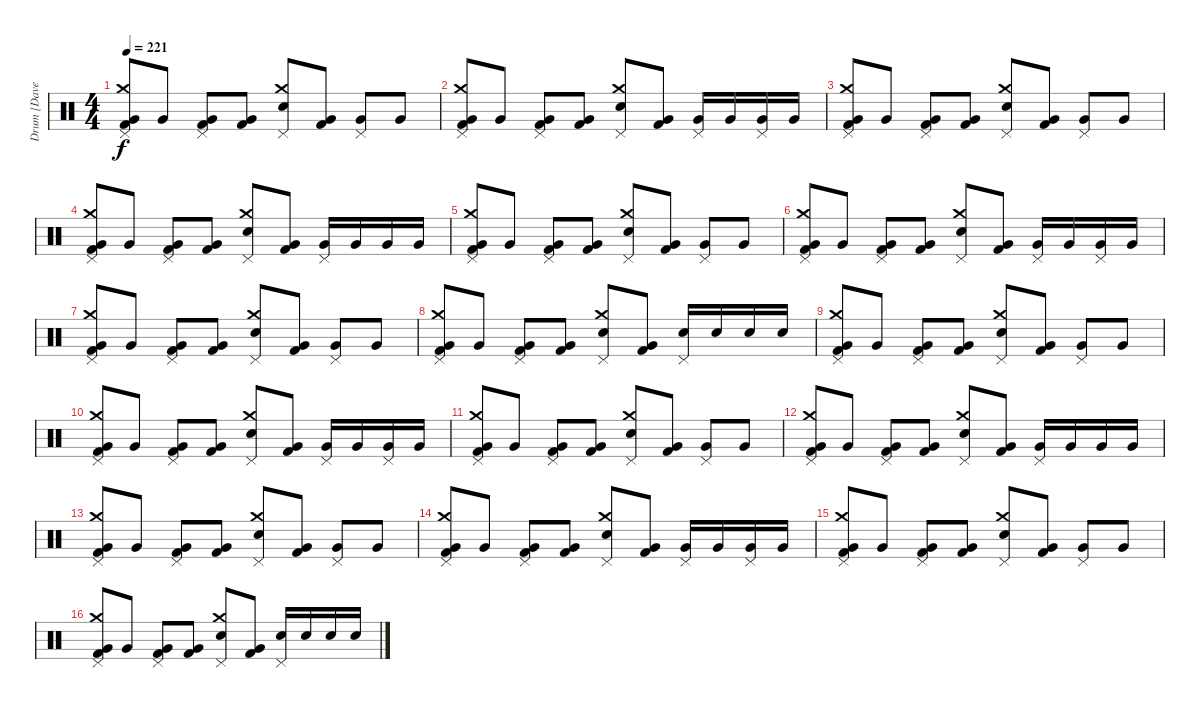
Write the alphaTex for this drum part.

\track ("Drum [Dave Grohl]" "Drum [Dave") {instrument percussion bank 255}
\staff {score}
\articulation defaults
\ts (4 4)
\tempo 221
\clef neutral
\ks c
("Pedal Hi-Hat (hit)" "Crash medium (hit)" "Very Low Tom (hit)" "Kick (hit) 2").8{dy f} "Very Low Tom (hit)".8 ("Pedal Hi-Hat (hit)" "Very Low Tom (hit)" "Kick (hit) 2").8 ("Very Low Tom (hit)" "Kick (hit) 2").8 ("Pedal Hi-Hat (hit)" "Crash medium (hit)" "Snare (hit) 2").8 ("Very Low Tom (hit)" "Kick (hit) 2").8 ("Pedal Hi-Hat (hit)" "Very Low Tom (hit)").8 "Very Low Tom (hit)".8 |
("Pedal Hi-Hat (hit)" "Crash medium (hit)" "Very Low Tom (hit)" "Kick (hit) 2").8 "Very Low Tom (hit)".8 ("Pedal Hi-Hat (hit)" "Very Low Tom (hit)" "Kick (hit) 2").8 ("Very Low Tom (hit)" "Kick (hit) 2").8 ("Pedal Hi-Hat (hit)" "Crash medium (hit)" "Snare (hit) 2").8 ("Very Low Tom (hit)" "Kick (hit) 2").8 ("Pedal Hi-Hat (hit)" "Very Low Tom (hit)").16 "Very Low Tom (hit)".16 ("Pedal Hi-Hat (hit)" "Very Low Tom (hit)").16 "Very Low Tom (hit)".16 |
("Pedal Hi-Hat (hit)" "Crash medium (hit)" "Very Low Tom (hit)" "Kick (hit) 2").8 "Very Low Tom (hit)".8 ("Pedal Hi-Hat (hit)" "Very Low Tom (hit)" "Kick (hit) 2").8 ("Very Low Tom (hit)" "Kick (hit) 2").8 ("Pedal Hi-Hat (hit)" "Crash medium (hit)" "Snare (hit) 2").8 ("Very Low Tom (hit)" "Kick (hit) 2").8 ("Pedal Hi-Hat (hit)" "Very Low Tom (hit)").8 "Very Low Tom (hit)".8 |
("Pedal Hi-Hat (hit)" "Crash medium (hit)" "Very Low Tom (hit)" "Kick (hit) 2").8 "Very Low Tom (hit)".8 ("Pedal Hi-Hat (hit)" "Very Low Tom (hit)" "Kick (hit) 2").8 ("Very Low Tom (hit)" "Kick (hit) 2").8 ("Pedal Hi-Hat (hit)" "Crash medium (hit)" "Snare (hit) 2").8 ("Very Low Tom (hit)" "Kick (hit) 2").8 ("Pedal Hi-Hat (hit)" "Very Low Tom (hit)").16 "Very Low Tom (hit)".16 "Very Low Tom (hit)".16 "Very Low Tom (hit)".16 |
("Pedal Hi-Hat (hit)" "Crash medium (hit)" "Very Low Tom (hit)" "Kick (hit) 2").8 "Very Low Tom (hit)".8 ("Pedal Hi-Hat (hit)" "Very Low Tom (hit)" "Kick (hit) 2").8 ("Very Low Tom (hit)" "Kick (hit) 2").8 ("Pedal Hi-Hat (hit)" "Crash medium (hit)" "Snare (hit) 2").8 ("Very Low Tom (hit)" "Kick (hit) 2").8 ("Pedal Hi-Hat (hit)" "Very Low Tom (hit)").8 "Very Low Tom (hit)".8 |
("Pedal Hi-Hat (hit)" "Crash medium (hit)" "Very Low Tom (hit)" "Kick (hit) 2").8 "Very Low Tom (hit)".8 ("Pedal Hi-Hat (hit)" "Very Low Tom (hit)" "Kick (hit) 2").8 ("Very Low Tom (hit)" "Kick (hit) 2").8 ("Pedal Hi-Hat (hit)" "Crash medium (hit)" "Snare (hit) 2").8 ("Very Low Tom (hit)" "Kick (hit) 2").8 ("Pedal Hi-Hat (hit)" "Very Low Tom (hit)").16 "Very Low Tom (hit)".16 ("Pedal Hi-Hat (hit)" "Very Low Tom (hit)").16 "Very Low Tom (hit)".16 |
("Pedal Hi-Hat (hit)" "Crash medium (hit)" "Very Low Tom (hit)" "Kick (hit) 2").8 "Very Low Tom (hit)".8 ("Pedal Hi-Hat (hit)" "Very Low Tom (hit)" "Kick (hit) 2").8 ("Very Low Tom (hit)" "Kick (hit) 2").8 ("Pedal Hi-Hat (hit)" "Crash medium (hit)" "Snare (hit) 2").8 ("Very Low Tom (hit)" "Kick (hit) 2").8 ("Pedal Hi-Hat (hit)" "Very Low Tom (hit)").8 "Very Low Tom (hit)".8 |
("Pedal Hi-Hat (hit)" "Crash medium (hit)" "Very Low Tom (hit)" "Kick (hit) 2").8 "Very Low Tom (hit)".8 ("Pedal Hi-Hat (hit)" "Very Low Tom (hit)" "Kick (hit) 2").8 ("Very Low Tom (hit)" "Kick (hit) 2").8 ("Pedal Hi-Hat (hit)" "Crash medium (hit)" "Snare (hit) 2").8 ("Very Low Tom (hit)" "Kick (hit) 2").8 ("Pedal Hi-Hat (hit)" "Snare (hit) 2").16 "Snare (hit) 2".16 "Snare (hit) 2".16 "Snare (hit) 2".16 |
("Pedal Hi-Hat (hit)" "Crash medium (hit)" "Very Low Tom (hit)" "Kick (hit) 2").8 "Very Low Tom (hit)".8 ("Pedal Hi-Hat (hit)" "Very Low Tom (hit)" "Kick (hit) 2").8 ("Very Low Tom (hit)" "Kick (hit) 2").8 ("Pedal Hi-Hat (hit)" "Crash medium (hit)" "Snare (hit) 2").8 ("Very Low Tom (hit)" "Kick (hit) 2").8 ("Pedal Hi-Hat (hit)" "Very Low Tom (hit)").8 "Very Low Tom (hit)".8 |
("Pedal Hi-Hat (hit)" "Crash medium (hit)" "Very Low Tom (hit)" "Kick (hit) 2").8 "Very Low Tom (hit)".8 ("Pedal Hi-Hat (hit)" "Very Low Tom (hit)" "Kick (hit) 2").8 ("Very Low Tom (hit)" "Kick (hit) 2").8 ("Pedal Hi-Hat (hit)" "Crash medium (hit)" "Snare (hit) 2").8 ("Very Low Tom (hit)" "Kick (hit) 2").8 ("Pedal Hi-Hat (hit)" "Very Low Tom (hit)").16 "Very Low Tom (hit)".16 ("Pedal Hi-Hat (hit)" "Very Low Tom (hit)").16 "Very Low Tom (hit)".16 |
("Pedal Hi-Hat (hit)" "Crash medium (hit)" "Very Low Tom (hit)" "Kick (hit) 2").8 "Very Low Tom (hit)".8 ("Pedal Hi-Hat (hit)" "Very Low Tom (hit)" "Kick (hit) 2").8 ("Very Low Tom (hit)" "Kick (hit) 2").8 ("Pedal Hi-Hat (hit)" "Crash medium (hit)" "Snare (hit) 2").8 ("Very Low Tom (hit)" "Kick (hit) 2").8 ("Pedal Hi-Hat (hit)" "Very Low Tom (hit)").8 "Very Low Tom (hit)".8 |
("Pedal Hi-Hat (hit)" "Crash medium (hit)" "Very Low Tom (hit)" "Kick (hit) 2").8 "Very Low Tom (hit)".8 ("Pedal Hi-Hat (hit)" "Very Low Tom (hit)" "Kick (hit) 2").8 ("Very Low Tom (hit)" "Kick (hit) 2").8 ("Pedal Hi-Hat (hit)" "Crash medium (hit)" "Snare (hit) 2").8 ("Very Low Tom (hit)" "Kick (hit) 2").8 ("Pedal Hi-Hat (hit)" "Very Low Tom (hit)").16 "Very Low Tom (hit)".16 "Very Low Tom (hit)".16 "Very Low Tom (hit)".16 |
("Pedal Hi-Hat (hit)" "Crash medium (hit)" "Very Low Tom (hit)" "Kick (hit) 2").8 "Very Low Tom (hit)".8 ("Pedal Hi-Hat (hit)" "Very Low Tom (hit)" "Kick (hit) 2").8 ("Very Low Tom (hit)" "Kick (hit) 2").8 ("Pedal Hi-Hat (hit)" "Crash medium (hit)" "Snare (hit) 2").8 ("Very Low Tom (hit)" "Kick (hit) 2").8 ("Pedal Hi-Hat (hit)" "Very Low Tom (hit)").8 "Very Low Tom (hit)".8 |
("Pedal Hi-Hat (hit)" "Crash medium (hit)" "Very Low Tom (hit)" "Kick (hit) 2").8 "Very Low Tom (hit)".8 ("Pedal Hi-Hat (hit)" "Very Low Tom (hit)" "Kick (hit) 2").8 ("Very Low Tom (hit)" "Kick (hit) 2").8 ("Pedal Hi-Hat (hit)" "Crash medium (hit)" "Snare (hit) 2").8 ("Very Low Tom (hit)" "Kick (hit) 2").8 ("Pedal Hi-Hat (hit)" "Very Low Tom (hit)").16 "Very Low Tom (hit)".16 ("Pedal Hi-Hat (hit)" "Very Low Tom (hit)").16 "Very Low Tom (hit)".16 |
("Pedal Hi-Hat (hit)" "Crash medium (hit)" "Very Low Tom (hit)" "Kick (hit) 2").8 "Very Low Tom (hit)".8 ("Pedal Hi-Hat (hit)" "Very Low Tom (hit)" "Kick (hit) 2").8 ("Very Low Tom (hit)" "Kick (hit) 2").8 ("Pedal Hi-Hat (hit)" "Crash medium (hit)" "Snare (hit) 2").8 ("Very Low Tom (hit)" "Kick (hit) 2").8 ("Pedal Hi-Hat (hit)" "Very Low Tom (hit)").8 "Very Low Tom (hit)".8 |
("Pedal Hi-Hat (hit)" "Crash medium (hit)" "Very Low Tom (hit)" "Kick (hit) 2").8 "Very Low Tom (hit)".8 ("Pedal Hi-Hat (hit)" "Very Low Tom (hit)" "Kick (hit) 2").8 ("Very Low Tom (hit)" "Kick (hit) 2").8 ("Pedal Hi-Hat (hit)" "Crash medium (hit)" "Snare (hit) 2").8 ("Very Low Tom (hit)" "Kick (hit) 2").8 ("Pedal Hi-Hat (hit)" "Snare (hit) 2").16 "Snare (hit) 2".16 "Snare (hit) 2".16 "Snare (hit) 2".16
